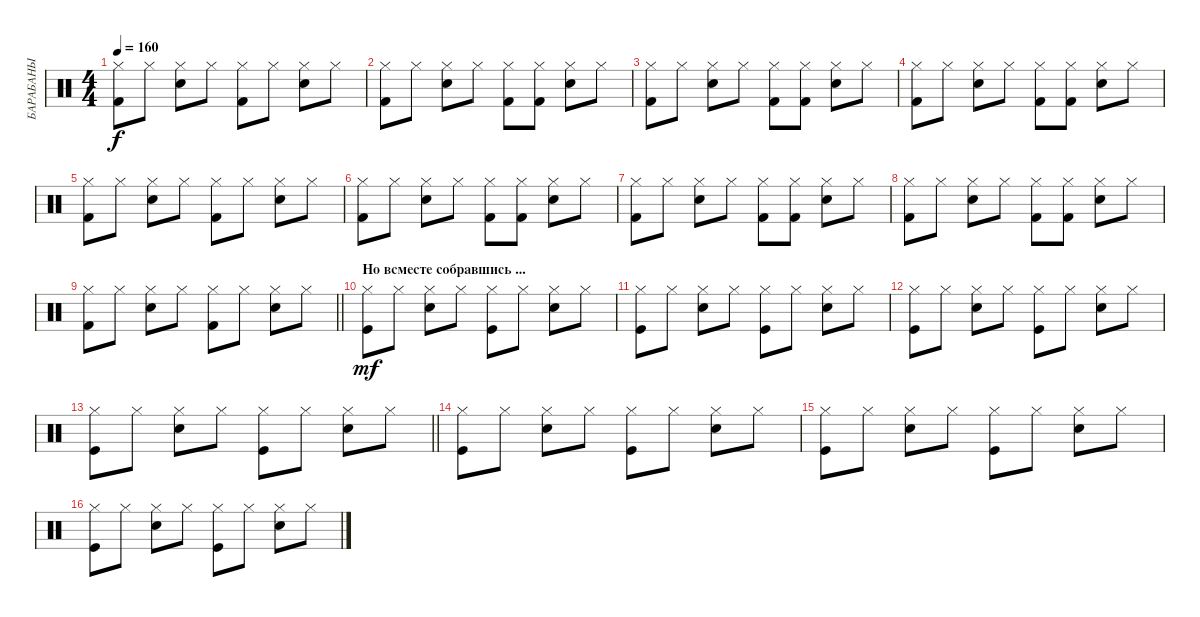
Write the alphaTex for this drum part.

\track ("БАРАБАНЫ" "БАРАБАНЫ") {instrument percussion}
\staff {score}
\articulation defaults
\ts (4 4)
\tempo 160
\clef neutral
\ks c
("Hi-Hat (closed)" "Kick (hit) 2").8{dy f} "Hi-Hat (closed)".8 ("Hi-Hat (closed)" "Electric Snare (hit)").8 "Hi-Hat (closed)".8 ("Hi-Hat (closed)" "Kick (hit) 2").8 "Hi-Hat (closed)".8 ("Hi-Hat (closed)" "Electric Snare (hit)").8 "Hi-Hat (closed)".8 |
("Hi-Hat (closed)" "Kick (hit) 2").8 "Hi-Hat (closed)".8 ("Hi-Hat (closed)" "Electric Snare (hit)").8 "Hi-Hat (closed)".8 ("Hi-Hat (closed)" "Kick (hit) 2").8 ("Hi-Hat (closed)" "Kick (hit) 2").8 ("Hi-Hat (closed)" "Electric Snare (hit)").8 "Hi-Hat (closed)".8 |
("Hi-Hat (closed)" "Kick (hit) 2").8 "Hi-Hat (closed)".8 ("Hi-Hat (closed)" "Electric Snare (hit)").8 "Hi-Hat (closed)".8 ("Hi-Hat (closed)" "Kick (hit) 2").8 ("Hi-Hat (closed)" "Kick (hit) 2").8 ("Hi-Hat (closed)" "Electric Snare (hit)").8 "Hi-Hat (closed)".8 |
("Hi-Hat (closed)" "Kick (hit) 2").8 "Hi-Hat (closed)".8 ("Hi-Hat (closed)" "Electric Snare (hit)").8 "Hi-Hat (closed)".8 ("Hi-Hat (closed)" "Kick (hit) 2").8 ("Hi-Hat (closed)" "Kick (hit) 2").8 ("Hi-Hat (closed)" "Electric Snare (hit)").8 "Hi-Hat (closed)".8 |
("Hi-Hat (closed)" "Kick (hit) 2").8 "Hi-Hat (closed)".8 ("Hi-Hat (closed)" "Electric Snare (hit)").8 "Hi-Hat (closed)".8 ("Hi-Hat (closed)" "Kick (hit) 2").8 "Hi-Hat (closed)".8 ("Hi-Hat (closed)" "Electric Snare (hit)").8 "Hi-Hat (closed)".8 |
("Hi-Hat (closed)" "Kick (hit) 2").8 "Hi-Hat (closed)".8 ("Hi-Hat (closed)" "Electric Snare (hit)").8 "Hi-Hat (closed)".8 ("Hi-Hat (closed)" "Kick (hit) 2").8 ("Hi-Hat (closed)" "Kick (hit) 2").8 ("Hi-Hat (closed)" "Electric Snare (hit)").8 "Hi-Hat (closed)".8 |
("Hi-Hat (closed)" "Kick (hit) 2").8 "Hi-Hat (closed)".8 ("Hi-Hat (closed)" "Electric Snare (hit)").8 "Hi-Hat (closed)".8 ("Hi-Hat (closed)" "Kick (hit) 2").8 ("Hi-Hat (closed)" "Kick (hit) 2").8 ("Hi-Hat (closed)" "Electric Snare (hit)").8 "Hi-Hat (closed)".8 |
("Hi-Hat (closed)" "Kick (hit) 2").8 "Hi-Hat (closed)".8 ("Hi-Hat (closed)" "Electric Snare (hit)").8 "Hi-Hat (closed)".8 ("Hi-Hat (closed)" "Kick (hit) 2").8 ("Hi-Hat (closed)" "Kick (hit) 2").8 ("Hi-Hat (closed)" "Electric Snare (hit)").8 "Hi-Hat (closed)".8 |
\barLineRight lightlight
("Hi-Hat (closed)" "Kick (hit) 2").8 "Hi-Hat (closed)".8 ("Hi-Hat (closed)" "Electric Snare (hit)").8 "Hi-Hat (closed)".8 ("Hi-Hat (closed)" "Kick (hit) 2").8 "Hi-Hat (closed)".8 ("Hi-Hat (closed)" "Electric Snare (hit)").8 "Hi-Hat (closed)".8 |
\section ("" "Но всместе собравшись ...")
("Hi-Hat (closed)" "Kick (hit)").8{dy mf} "Hi-Hat (closed)".8 ("Hi-Hat (closed)" "Electric Snare (hit)").8 "Hi-Hat (closed)".8 ("Hi-Hat (closed)" "Kick (hit)").8 "Hi-Hat (closed)".8 ("Hi-Hat (closed)" "Electric Snare (hit)").8 "Hi-Hat (closed)".8 |
("Hi-Hat (closed)" "Kick (hit)").8 "Hi-Hat (closed)".8 ("Hi-Hat (closed)" "Electric Snare (hit)").8 "Hi-Hat (closed)".8 ("Hi-Hat (closed)" "Kick (hit)").8 "Hi-Hat (closed)".8 ("Hi-Hat (closed)" "Electric Snare (hit)").8 "Hi-Hat (closed)".8 |
("Hi-Hat (closed)" "Kick (hit)").8 "Hi-Hat (closed)".8 ("Hi-Hat (closed)" "Electric Snare (hit)").8 "Hi-Hat (closed)".8 ("Hi-Hat (closed)" "Kick (hit)").8 "Hi-Hat (closed)".8 ("Hi-Hat (closed)" "Electric Snare (hit)").8 "Hi-Hat (closed)".8 |
\barLineRight lightlight
("Hi-Hat (closed)" "Kick (hit)").8 "Hi-Hat (closed)".8 ("Hi-Hat (closed)" "Electric Snare (hit)").8 "Hi-Hat (closed)".8 ("Hi-Hat (closed)" "Kick (hit)").8 "Hi-Hat (closed)".8 ("Hi-Hat (closed)" "Electric Snare (hit)").8 "Hi-Hat (closed)".8 |
("Hi-Hat (closed)" "Kick (hit)").8 "Hi-Hat (closed)".8 ("Hi-Hat (closed)" "Electric Snare (hit)").8 "Hi-Hat (closed)".8 ("Hi-Hat (closed)" "Kick (hit)").8 "Hi-Hat (closed)".8 ("Hi-Hat (closed)" "Electric Snare (hit)").8 "Hi-Hat (closed)".8 |
("Hi-Hat (closed)" "Kick (hit)").8 "Hi-Hat (closed)".8 ("Hi-Hat (closed)" "Electric Snare (hit)").8 "Hi-Hat (closed)".8 ("Hi-Hat (closed)" "Kick (hit)").8 "Hi-Hat (closed)".8 ("Hi-Hat (closed)" "Electric Snare (hit)").8 "Hi-Hat (closed)".8 |
("Hi-Hat (closed)" "Kick (hit)").8 "Hi-Hat (closed)".8 ("Hi-Hat (closed)" "Electric Snare (hit)").8 "Hi-Hat (closed)".8 ("Hi-Hat (closed)" "Kick (hit)").8 "Hi-Hat (closed)".8 ("Hi-Hat (closed)" "Electric Snare (hit)").8 "Hi-Hat (closed)".8
